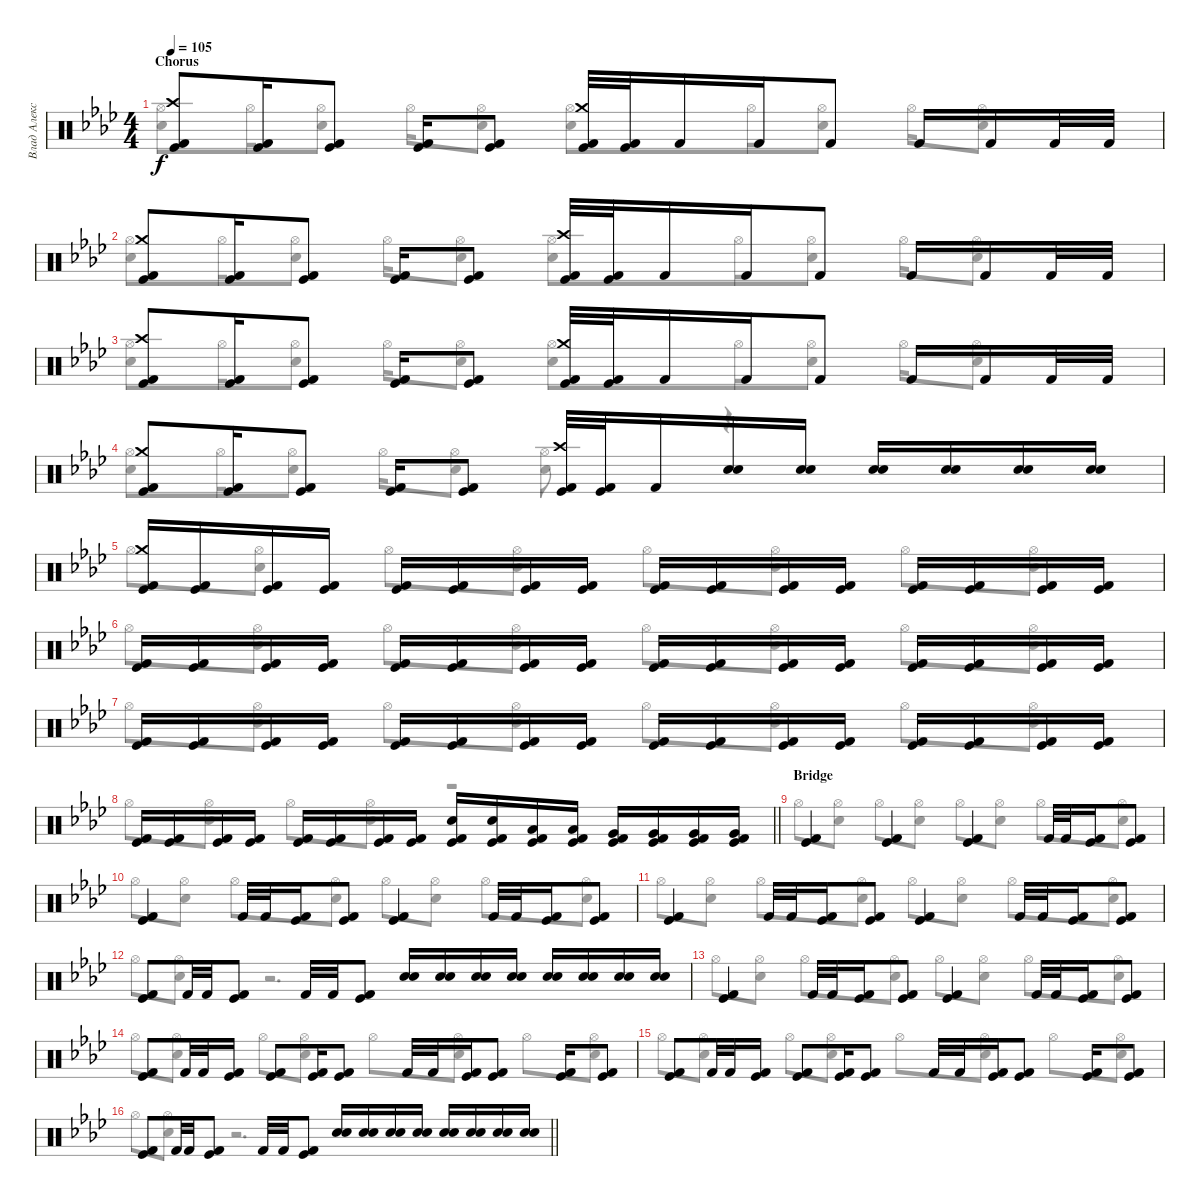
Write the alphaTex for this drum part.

\track ("Влад Алексеенко" "Влад Алекс") {instrument percussion}
\staff {score}
\articulation defaults
\voice
\ts (4 4)
\section ("" "Chorus")
\tempo 105
\clef neutral
\ks ab
("Kick (hit) 2" "Kick (hit)" "Crash high (hit)").8{dy f} ("Kick (hit) 2" "Kick (hit)").16 ("Kick (hit) 2" "Kick (hit)").8 ("Kick (hit) 2" "Kick (hit)").16 ("Kick (hit) 2" "Kick (hit)").8 ("Kick (hit) 2" "Kick (hit)" "Crash medium (hit)").32 ("Kick (hit) 2" "Kick (hit)").32 "Kick (hit) 2".16 "Kick (hit) 2".16 "Kick (hit) 2".8 "Kick (hit) 2".16 "Kick (hit) 2".16 "Kick (hit) 2".32 "Kick (hit) 2".32 |
("Kick (hit) 2" "Kick (hit)" "Crash medium (hit)").8 ("Kick (hit) 2" "Kick (hit)").16 ("Kick (hit) 2" "Kick (hit)").8 ("Kick (hit) 2" "Kick (hit)").16 ("Kick (hit) 2" "Kick (hit)").8 ("Kick (hit) 2" "Kick (hit)" "Crash high (hit)").32 ("Kick (hit) 2" "Kick (hit)").32 "Kick (hit) 2".16 "Kick (hit) 2".16 "Kick (hit) 2".8 "Kick (hit) 2".16 "Kick (hit) 2".16 "Kick (hit) 2".32 "Kick (hit) 2".32 |
("Kick (hit) 2" "Kick (hit)" "Crash high (hit)").8 ("Kick (hit) 2" "Kick (hit)").16 ("Kick (hit) 2" "Kick (hit)").8 ("Kick (hit) 2" "Kick (hit)").16 ("Kick (hit) 2" "Kick (hit)").8 ("Kick (hit) 2" "Kick (hit)" "Crash medium (hit)").32 ("Kick (hit) 2" "Kick (hit)").32 "Kick (hit) 2".16 "Kick (hit) 2".16 "Kick (hit) 2".8 "Kick (hit) 2".16 "Kick (hit) 2".16 "Kick (hit) 2".32 "Kick (hit) 2".32 |
("Kick (hit) 2" "Kick (hit)" "Crash medium (hit)").8 ("Kick (hit) 2" "Kick (hit)").16 ("Kick (hit) 2" "Kick (hit)").8 ("Kick (hit) 2" "Kick (hit)").16 ("Kick (hit) 2" "Kick (hit)").8 ("Kick (hit) 2" "Kick (hit)" "Crash high (hit)").32 ("Kick (hit) 2" "Kick (hit)").32 "Kick (hit) 2".16 ("Snare (hit) 2" "Snare (hit) 2").16 ("Snare (hit) 2" "Snare (hit) 2").16 ("Snare (hit) 2" "Snare (hit) 2").16 ("Snare (hit) 2" "Snare (hit) 2").16 ("Snare (hit) 2" "Snare (hit) 2").16 ("Snare (hit) 2" "Snare (hit) 2").16 |
("Kick (hit) 2" "Kick (hit)" "Crash medium (hit)").16 ("Kick (hit) 2" "Kick (hit)").16 ("Kick (hit) 2" "Kick (hit)").16 ("Kick (hit) 2" "Kick (hit)").16 ("Kick (hit) 2" "Kick (hit)").16 ("Kick (hit) 2" "Kick (hit)").16 ("Kick (hit) 2" "Kick (hit)").16 ("Kick (hit) 2" "Kick (hit)").16 ("Kick (hit) 2" "Kick (hit)").16 ("Kick (hit) 2" "Kick (hit)").16 ("Kick (hit) 2" "Kick (hit)").16 ("Kick (hit) 2" "Kick (hit)").16 ("Kick (hit) 2" "Kick (hit)").16 ("Kick (hit) 2" "Kick (hit)").16 ("Kick (hit) 2" "Kick (hit)").16 ("Kick (hit) 2" "Kick (hit)").16 |
("Kick (hit) 2" "Kick (hit)").16 ("Kick (hit) 2" "Kick (hit)").16 ("Kick (hit) 2" "Kick (hit)").16 ("Kick (hit) 2" "Kick (hit)").16 ("Kick (hit) 2" "Kick (hit)").16 ("Kick (hit) 2" "Kick (hit)").16 ("Kick (hit) 2" "Kick (hit)").16 ("Kick (hit) 2" "Kick (hit)").16 ("Kick (hit) 2" "Kick (hit)").16 ("Kick (hit) 2" "Kick (hit)").16 ("Kick (hit) 2" "Kick (hit)").16 ("Kick (hit) 2" "Kick (hit)").16 ("Kick (hit) 2" "Kick (hit)").16 ("Kick (hit) 2" "Kick (hit)").16 ("Kick (hit) 2" "Kick (hit)").16 ("Kick (hit) 2" "Kick (hit)").16 |
("Kick (hit) 2" "Kick (hit)").16 ("Kick (hit) 2" "Kick (hit)").16 ("Kick (hit) 2" "Kick (hit)").16 ("Kick (hit) 2" "Kick (hit)").16 ("Kick (hit) 2" "Kick (hit)").16 ("Kick (hit) 2" "Kick (hit)").16 ("Kick (hit) 2" "Kick (hit)").16 ("Kick (hit) 2" "Kick (hit)").16 ("Kick (hit) 2" "Kick (hit)").16 ("Kick (hit) 2" "Kick (hit)").16 ("Kick (hit) 2" "Kick (hit)").16 ("Kick (hit) 2" "Kick (hit)").16 ("Kick (hit) 2" "Kick (hit)").16 ("Kick (hit) 2" "Kick (hit)").16 ("Kick (hit) 2" "Kick (hit)").16 ("Kick (hit) 2" "Kick (hit)").16 |
\barLineRight lightlight
("Kick (hit) 2" "Kick (hit)").16 ("Kick (hit) 2" "Kick (hit)").16 ("Kick (hit) 2" "Kick (hit)").16 ("Kick (hit) 2" "Kick (hit)").16 ("Kick (hit) 2" "Kick (hit)").16 ("Kick (hit) 2" "Kick (hit)").16 ("Kick (hit) 2" "Kick (hit)").16 ("Kick (hit) 2" "Kick (hit)").16 ("Kick (hit) 2" "Kick (hit)" "Snare (hit) 2").16 ("Kick (hit) 2" "Kick (hit)" "Snare (hit) 2").16 ("Kick (hit) 2" "Kick (hit)" "Low Tom (hit)").16 ("Kick (hit) 2" "Kick (hit)" "Low Tom (hit)").16 ("Kick (hit) 2" "Kick (hit)" "Very Low Tom (hit)").16 ("Kick (hit) 2" "Kick (hit)" "Very Low Tom (hit)").16 ("Kick (hit) 2" "Kick (hit)" "Very Low Tom (hit)").16 ("Kick (hit) 2" "Kick (hit)" "Very Low Tom (hit)").16 |
\section ("" "Bridge")
("Kick (hit) 2" "Kick (hit)").4 ("Kick (hit) 2" "Kick (hit)").4 ("Kick (hit) 2" "Kick (hit)").4 "Kick (hit) 2".32 "Kick (hit) 2".32 ("Kick (hit) 2" "Kick (hit)").16 ("Kick (hit) 2" "Kick (hit)").8 |
("Kick (hit) 2" "Kick (hit)").4 "Kick (hit) 2".32 "Kick (hit) 2".32 ("Kick (hit) 2" "Kick (hit)").16 ("Kick (hit) 2" "Kick (hit)").8 ("Kick (hit) 2" "Kick (hit)").4 "Kick (hit) 2".32 "Kick (hit) 2".32 ("Kick (hit) 2" "Kick (hit)").16 ("Kick (hit) 2" "Kick (hit)").8 |
("Kick (hit) 2" "Kick (hit)").4 "Kick (hit) 2".32 "Kick (hit) 2".32 ("Kick (hit) 2" "Kick (hit)").16 ("Kick (hit) 2" "Kick (hit)").8 ("Kick (hit) 2" "Kick (hit)").4 "Kick (hit) 2".32 "Kick (hit) 2".32 ("Kick (hit) 2" "Kick (hit)").16 ("Kick (hit) 2" "Kick (hit)").8 |
("Kick (hit) 2" "Kick (hit)").8 "Kick (hit) 2".32 "Kick (hit) 2".32 ("Kick (hit) 2" "Kick (hit)").8 "Kick (hit) 2".32 "Kick (hit) 2".32 ("Kick (hit) 2" "Kick (hit)").8 ("Snare (hit) 2" "Snare (hit) 2").16 ("Snare (hit) 2" "Snare (hit) 2").16 ("Snare (hit) 2" "Snare (hit) 2").16 ("Snare (hit) 2" "Snare (hit) 2").16 ("Snare (hit) 2" "Snare (hit) 2").16 ("Snare (hit) 2" "Snare (hit) 2").16 ("Snare (hit) 2" "Snare (hit) 2").16 ("Snare (hit) 2" "Snare (hit) 2").16 |
("Kick (hit) 2" "Kick (hit)").4 "Kick (hit) 2".32 "Kick (hit) 2".32 ("Kick (hit) 2" "Kick (hit)").16 ("Kick (hit) 2" "Kick (hit)").8 ("Kick (hit) 2" "Kick (hit)").4 "Kick (hit) 2".32 "Kick (hit) 2".32 ("Kick (hit) 2" "Kick (hit)").16 ("Kick (hit) 2" "Kick (hit)").8 |
("Kick (hit) 2" "Kick (hit)").8 "Kick (hit) 2".32 "Kick (hit) 2".32 ("Kick (hit) 2" "Kick (hit)").16 ("Kick (hit) 2" "Kick (hit)").8 ("Kick (hit) 2" "Kick (hit)").16 ("Kick (hit) 2" "Kick (hit)").8 "Kick (hit) 2".32 "Kick (hit) 2".32 ("Kick (hit) 2" "Kick (hit)").16 ("Kick (hit) 2" "Kick (hit)").8 ("Kick (hit) 2" "Kick (hit)").16 ("Kick (hit) 2" "Kick (hit)").8 |
("Kick (hit) 2" "Kick (hit)").8 "Kick (hit) 2".32 "Kick (hit) 2".32 ("Kick (hit) 2" "Kick (hit)").16 ("Kick (hit) 2" "Kick (hit)").8 ("Kick (hit) 2" "Kick (hit)").16 ("Kick (hit) 2" "Kick (hit)").8 "Kick (hit) 2".32 "Kick (hit) 2".32 ("Kick (hit) 2" "Kick (hit)").16 ("Kick (hit) 2" "Kick (hit)").8 ("Kick (hit) 2" "Kick (hit)").16 ("Kick (hit) 2" "Kick (hit)").8 |
\barLineRight lightlight
("Kick (hit) 2" "Kick (hit)").8 "Kick (hit) 2".32 "Kick (hit) 2".32 ("Kick (hit) 2" "Kick (hit)").8 "Kick (hit) 2".32 "Kick (hit) 2".32 ("Kick (hit) 2" "Kick (hit)").8 ("Snare (hit) 2" "Snare (hit) 2").16 ("Snare (hit) 2" "Snare (hit) 2").16 ("Snare (hit) 2" "Snare (hit) 2").16 ("Snare (hit) 2" "Snare (hit) 2").16 ("Snare (hit) 2" "Snare (hit) 2").16 ("Snare (hit) 2" "Snare (hit) 2").16 ("Snare (hit) 2" "Snare (hit) 2").16 ("Snare (hit) 2" "Snare (hit) 2").16
\voice
\clef neutral
\ottava regular
\simile none
\ks ab
("Snare (hit) 2" "Hi-Hat (open)").8{dy f} "Hi-Hat (open)".16 ("Snare (hit) 2" "Hi-Hat (open)").8 "Hi-Hat (open)".16 ("Snare (hit) 2" "Hi-Hat (open)").8 ("Snare (hit) 2" "Hi-Hat (open)").8 "Hi-Hat (open)".16 ("Snare (hit) 2" "Hi-Hat (open)").8 "Hi-Hat (open)".16 ("Snare (hit) 2" "Hi-Hat (open)").8 |
("Snare (hit) 2" "Hi-Hat (open)").8 "Hi-Hat (open)".16 ("Snare (hit) 2" "Hi-Hat (open)").8 "Hi-Hat (open)".16 ("Snare (hit) 2" "Hi-Hat (open)").8 ("Snare (hit) 2" "Hi-Hat (open)").8 "Hi-Hat (open)".16 ("Snare (hit) 2" "Hi-Hat (open)").8 "Hi-Hat (open)".16 ("Snare (hit) 2" "Hi-Hat (open)").8 |
("Snare (hit) 2" "Hi-Hat (open)").8 "Hi-Hat (open)".16 ("Snare (hit) 2" "Hi-Hat (open)").8 "Hi-Hat (open)".16 ("Snare (hit) 2" "Hi-Hat (open)").8 ("Snare (hit) 2" "Hi-Hat (open)").8 "Hi-Hat (open)".16 ("Snare (hit) 2" "Hi-Hat (open)").8 "Hi-Hat (open)".16 ("Snare (hit) 2" "Hi-Hat (open)").8 |
("Snare (hit) 2" "Hi-Hat (open)").8 "Hi-Hat (open)".16 ("Snare (hit) 2" "Hi-Hat (open)").8 "Hi-Hat (open)".16 ("Snare (hit) 2" "Hi-Hat (open)").8 ("Snare (hit) 2" "Hi-Hat (open)").8 r.4{d} |
"Hi-Hat (open)".8 ("Hi-Hat (open)" "Snare (hit) 2").8 "Hi-Hat (open)".8 ("Hi-Hat (open)" "Snare (hit) 2").8 "Hi-Hat (open)".8 ("Hi-Hat (open)" "Snare (hit) 2").8 "Hi-Hat (open)".8 ("Hi-Hat (open)" "Snare (hit) 2").8 |
"Hi-Hat (open)".8 ("Hi-Hat (open)" "Snare (hit) 2").8 "Hi-Hat (open)".8 ("Hi-Hat (open)" "Snare (hit) 2").8 "Hi-Hat (open)".8 ("Hi-Hat (open)" "Snare (hit) 2").8 "Hi-Hat (open)".8 ("Hi-Hat (open)" "Snare (hit) 2").8 |
"Hi-Hat (open)".8 ("Hi-Hat (open)" "Snare (hit) 2").8 "Hi-Hat (open)".8 ("Hi-Hat (open)" "Snare (hit) 2").8 "Hi-Hat (open)".8 ("Hi-Hat (open)" "Snare (hit) 2").8 "Hi-Hat (open)".8 ("Hi-Hat (open)" "Snare (hit) 2").8 |
\barLineRight lightlight "Hi-Hat (open)".8
("Hi-Hat (open)" "Snare (hit) 2").8 "Hi-Hat (open)".8 ("Hi-Hat (open)" "Snare (hit) 2").8 r.2 |
"Hi-Hat (open)".8 ("Hi-Hat (open)" "Snare (hit) 2").8 "Hi-Hat (open)".8 ("Hi-Hat (open)" "Snare (hit) 2").8 "Hi-Hat (open)".8 ("Hi-Hat (open)" "Snare (hit) 2").8 "Hi-Hat (open)".8 ("Hi-Hat (open)" "Snare (hit) 2").8 |
"Hi-Hat (open)".8 ("Hi-Hat (open)" "Snare (hit) 2").8 "Hi-Hat (open)".8 ("Hi-Hat (open)" "Snare (hit) 2").8 "Hi-Hat (open)".8 ("Hi-Hat (open)" "Snare (hit) 2").8 "Hi-Hat (open)".8 ("Hi-Hat (open)" "Snare (hit) 2").8 |
"Hi-Hat (open)".8 ("Hi-Hat (open)" "Snare (hit) 2").8 "Hi-Hat (open)".8 ("Hi-Hat (open)" "Snare (hit) 2").8 "Hi-Hat (open)".8 ("Hi-Hat (open)" "Snare (hit) 2").8 "Hi-Hat (open)".8 ("Hi-Hat (open)" "Snare (hit) 2").8 |
"Hi-Hat (open)".8 ("Hi-Hat (open)" "Snare (hit) 2").8 r.2{d} |
"Hi-Hat (open)".8 ("Hi-Hat (open)" "Snare (hit) 2").8 "Hi-Hat (open)".8 ("Hi-Hat (open)" "Snare (hit) 2").8 "Hi-Hat (open)".8 ("Hi-Hat (open)" "Snare (hit) 2").8 "Hi-Hat (open)".8 ("Hi-Hat (open)" "Snare (hit) 2").8 |
"Hi-Hat (open)".8 ("Hi-Hat (open)" "Snare (hit) 2").8 "Hi-Hat (open)".8 ("Hi-Hat (open)" "Snare (hit) 2").8 "Hi-Hat (open)".8 ("Hi-Hat (open)" "Snare (hit) 2").8 "Hi-Hat (open)".8 ("Hi-Hat (open)" "Snare (hit) 2").8 |
"Hi-Hat (open)".8 ("Hi-Hat (open)" "Snare (hit) 2").8 "Hi-Hat (open)".8 ("Hi-Hat (open)" "Snare (hit) 2").8 "Hi-Hat (open)".8 ("Hi-Hat (open)" "Snare (hit) 2").8 "Hi-Hat (open)".8 ("Hi-Hat (open)" "Snare (hit) 2").8 |
\barLineRight lightlight "Hi-Hat (open)".8
("Hi-Hat (open)" "Snare (hit) 2").8 r.2{d}
